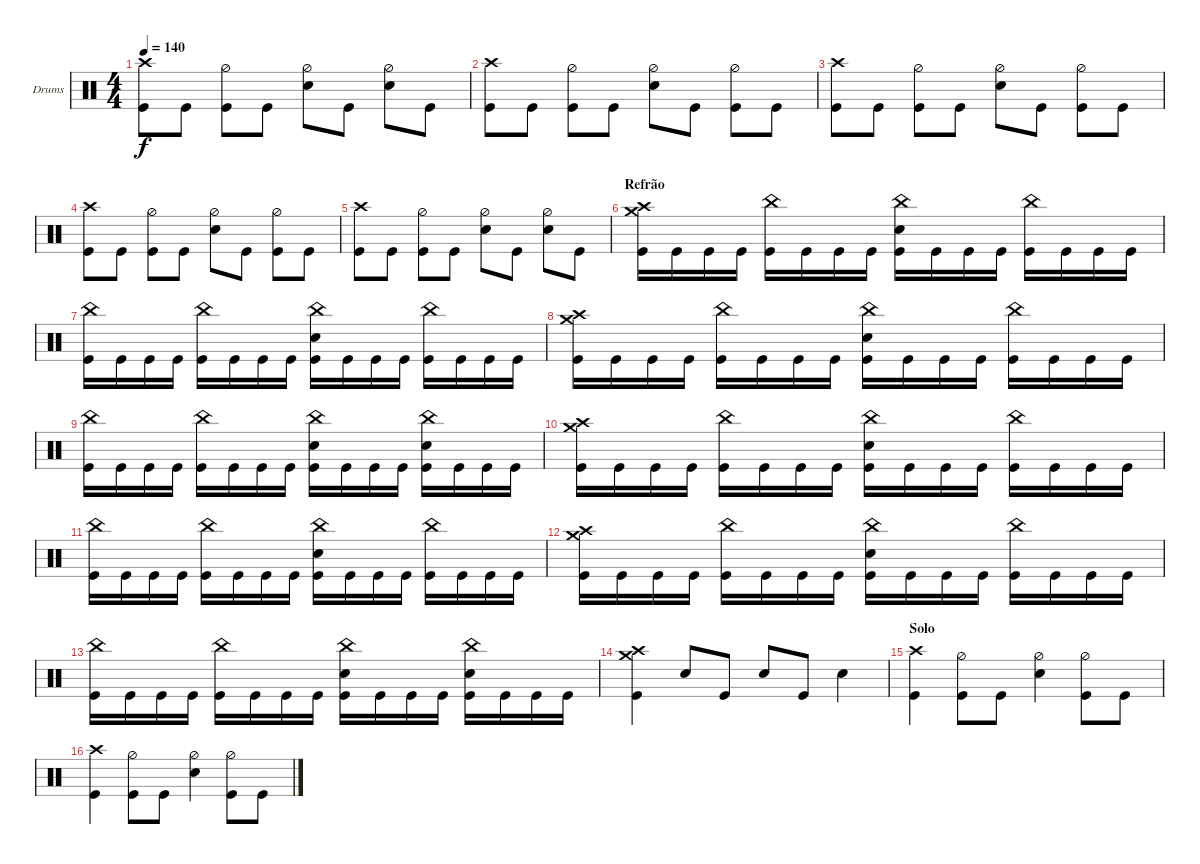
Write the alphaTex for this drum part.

\defaultSystemsLayout 4
\bracketExtendMode groupsimilarinstruments
\firstSystemTrackNameOrientation horizontal
\otherSystemsTrackNameOrientation horizontal
\track ("Drumkit" "Drums") {instrument percussion}
\staff {score}
\articulation defaults
\ts (4 4)
\tempo 140
\clef neutral
\ks c
("Kick (hit)" "Crash high (hit)").8{dy f} "Kick (hit)".8 ("Kick (hit)" "Hi-Hat (half)").8 "Kick (hit)".8 ("Snare (hit) 2" "Hi-Hat (half)").8 "Kick (hit)".8 ("Snare (hit) 2" "Hi-Hat (half)").8 "Kick (hit)".8 |
("Kick (hit)" "Crash high (hit)").8 "Kick (hit)".8 ("Kick (hit)" "Hi-Hat (half)").8 "Kick (hit)".8 ("Snare (hit) 2" "Hi-Hat (half)").8 "Kick (hit)".8 ("Kick (hit)" "Hi-Hat (half)").8 "Kick (hit)".8 |
("Kick (hit)" "Crash high (hit)").8 "Kick (hit)".8 ("Kick (hit)" "Hi-Hat (half)").8 "Kick (hit)".8 ("Snare (hit) 2" "Hi-Hat (half)").8 "Kick (hit)".8 ("Kick (hit)" "Hi-Hat (half)").8 "Kick (hit)".8 |
("Kick (hit)" "Crash high (hit)").8 "Kick (hit)".8 ("Kick (hit)" "Hi-Hat (half)").8 "Kick (hit)".8 ("Snare (hit) 2" "Hi-Hat (half)").8 "Kick (hit)".8 ("Kick (hit)" "Hi-Hat (half)").8 "Kick (hit)".8 |
("Kick (hit)" "Crash high (hit)").8 "Kick (hit)".8 ("Kick (hit)" "Hi-Hat (half)").8 "Kick (hit)".8 ("Snare (hit) 2" "Hi-Hat (half)").8 "Kick (hit)".8 ("Snare (hit) 2" "Hi-Hat (half)").8 "Kick (hit)".8 |
\section ("" "Refrão")
("Kick (hit)" "Crash high (hit)" "Crash medium (hit)").16 "Kick (hit)".16 "Kick (hit)".16 "Kick (hit)".16 ("Kick (hit)" "China (hit)").16 "Kick (hit)".16 "Kick (hit)".16 "Kick (hit)".16 ("Kick (hit)" "Snare (hit) 2" "China (hit)").16 "Kick (hit)".16 "Kick (hit)".16 "Kick (hit)".16 ("Kick (hit)" "China (hit)").16 "Kick (hit)".16 "Kick (hit)".16 "Kick (hit)".16 |
("Kick (hit)" "China (hit)").16 "Kick (hit)".16 "Kick (hit)".16 "Kick (hit)".16 ("Kick (hit)" "China (hit)").16 "Kick (hit)".16 "Kick (hit)".16 "Kick (hit)".16 ("Kick (hit)" "Snare (hit) 2" "China (hit)").16 "Kick (hit)".16 "Kick (hit)".16 "Kick (hit)".16 ("Kick (hit)" "China (hit)").16 "Kick (hit)".16 "Kick (hit)".16 "Kick (hit)".16 |
("Kick (hit)" "Crash high (hit)" "Crash medium (hit)").16 "Kick (hit)".16 "Kick (hit)".16 "Kick (hit)".16 ("Kick (hit)" "China (hit)").16 "Kick (hit)".16 "Kick (hit)".16 "Kick (hit)".16 ("Kick (hit)" "Snare (hit) 2" "China (hit)").16 "Kick (hit)".16 "Kick (hit)".16 "Kick (hit)".16 ("Kick (hit)" "China (hit)").16 "Kick (hit)".16 "Kick (hit)".16 "Kick (hit)".16 |
("Kick (hit)" "China (hit)").16 "Kick (hit)".16 "Kick (hit)".16 "Kick (hit)".16 ("Kick (hit)" "China (hit)").16 "Kick (hit)".16 "Kick (hit)".16 "Kick (hit)".16 ("Kick (hit)" "Snare (hit) 2" "China (hit)").16 "Kick (hit)".16 "Kick (hit)".16 "Kick (hit)".16 ("Kick (hit)" "China (hit)" "Snare (hit) 2").16 "Kick (hit)".16 "Kick (hit)".16 "Kick (hit)".16 |
("Kick (hit)" "Crash high (hit)" "Crash medium (hit)").16 "Kick (hit)".16 "Kick (hit)".16 "Kick (hit)".16 ("Kick (hit)" "China (hit)").16 "Kick (hit)".16 "Kick (hit)".16 "Kick (hit)".16 ("Kick (hit)" "Snare (hit) 2" "China (hit)").16 "Kick (hit)".16 "Kick (hit)".16 "Kick (hit)".16 ("Kick (hit)" "China (hit)").16 "Kick (hit)".16 "Kick (hit)".16 "Kick (hit)".16 |
("Kick (hit)" "China (hit)").16 "Kick (hit)".16 "Kick (hit)".16 "Kick (hit)".16 ("Kick (hit)" "China (hit)").16 "Kick (hit)".16 "Kick (hit)".16 "Kick (hit)".16 ("Kick (hit)" "Snare (hit) 2" "China (hit)").16 "Kick (hit)".16 "Kick (hit)".16 "Kick (hit)".16 ("Kick (hit)" "China (hit)").16 "Kick (hit)".16 "Kick (hit)".16 "Kick (hit)".16 |
("Kick (hit)" "Crash high (hit)" "Crash medium (hit)").16 "Kick (hit)".16 "Kick (hit)".16 "Kick (hit)".16 ("Kick (hit)" "China (hit)").16 "Kick (hit)".16 "Kick (hit)".16 "Kick (hit)".16 ("Kick (hit)" "Snare (hit) 2" "China (hit)").16 "Kick (hit)".16 "Kick (hit)".16 "Kick (hit)".16 ("Kick (hit)" "China (hit)").16 "Kick (hit)".16 "Kick (hit)".16 "Kick (hit)".16 |
("Kick (hit)" "China (hit)").16 "Kick (hit)".16 "Kick (hit)".16 "Kick (hit)".16 ("Kick (hit)" "China (hit)").16 "Kick (hit)".16 "Kick (hit)".16 "Kick (hit)".16 ("Kick (hit)" "Snare (hit) 2" "China (hit)").16 "Kick (hit)".16 "Kick (hit)".16 "Kick (hit)".16 ("Kick (hit)" "China (hit)" "Snare (hit) 2").16 "Kick (hit)".16 "Kick (hit)".16 "Kick (hit)".16 |
("Kick (hit)" "Crash high (hit)" "Crash medium (hit)").4 "Snare (hit) 2".8 "Kick (hit)".8 "Snare (hit) 2".8 "Kick (hit)".8 "Snare (hit) 2".4 |
\section ("" "Solo")
("Kick (hit)" "Crash high (hit)").4 ("Kick (hit)" "Hi-Hat (half)").8 "Kick (hit)".8 ("Snare (hit) 2" "Hi-Hat (half)").4 ("Kick (hit)" "Hi-Hat (half)").8 "Kick (hit)".8 |
("Kick (hit)" "Crash high (hit)").4 ("Kick (hit)" "Hi-Hat (half)").8 "Kick (hit)".8 ("Snare (hit) 2" "Hi-Hat (half)").4 ("Kick (hit)" "Hi-Hat (half)").8 "Kick (hit)".8
